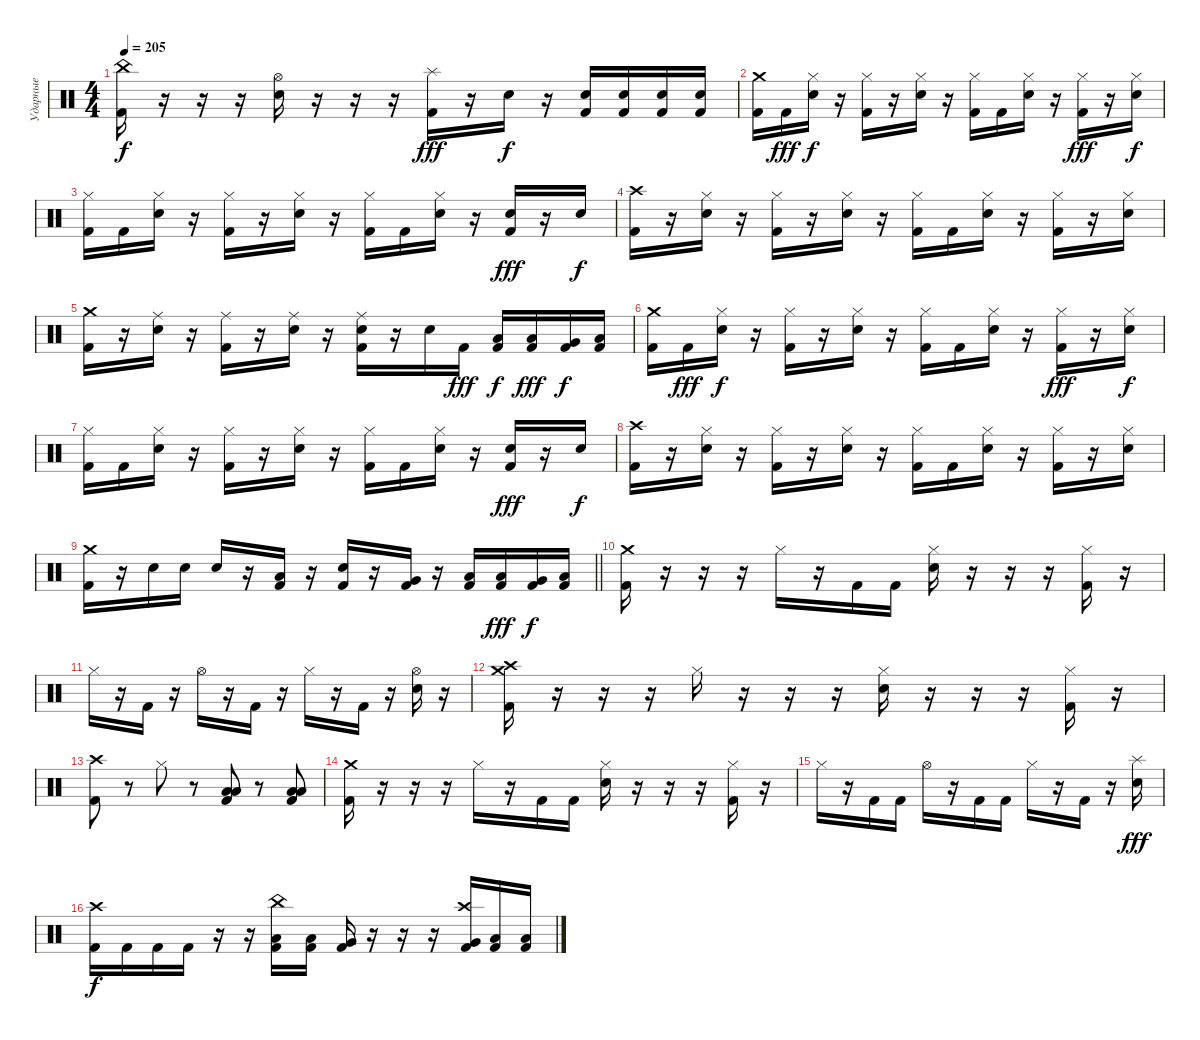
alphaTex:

\track ("Ударные" "Ударные") {instrument percussion}
\staff {score}
\articulation defaults
\ts (4 4)
\tempo 205
\clef neutral
\ks c
("China (hit)" "Kick (hit) 2").16{dy f} r.16 r.16 r.16 ("Hi-Hat (open)" "Snare (hit) 2").16 r.16 r.16 r.16 ("Splash (hit)" "Kick (hit) 2").16{dy fff} r.16 "Snare (hit) 2".16{dy f} r.16 ("Snare (hit) 2" "Kick (hit) 2").16 ("Snare (hit) 2" "Kick (hit) 2").16 ("Snare (hit) 2" "Kick (hit) 2").16 ("Snare (hit) 2" "Kick (hit) 2").16 |
("Crash medium (hit)" "Kick (hit) 2").16 "Kick (hit) 2".16{dy fff} ("Hi-Hat (closed)" "Snare (hit) 2").16{dy f} r.16 ("Hi-Hat (closed)" "Kick (hit) 2").16 r.16 ("Hi-Hat (closed)" "Snare (hit) 2").16 r.16 ("Hi-Hat (closed)" "Kick (hit) 2").16 "Kick (hit) 2".16 ("Hi-Hat (closed)" "Snare (hit) 2").16 r.16 ("Hi-Hat (closed)" "Kick (hit) 2").16{dy fff} r.16 ("Hi-Hat (closed)" "Snare (hit) 2").16{dy f} |
("Hi-Hat (closed)" "Kick (hit) 2").16 "Kick (hit) 2".16 ("Hi-Hat (closed)" "Snare (hit) 2").16 r.16 ("Hi-Hat (closed)" "Kick (hit) 2").16 r.16 ("Hi-Hat (closed)" "Snare (hit) 2").16 r.16 ("Hi-Hat (closed)" "Kick (hit) 2").16 "Kick (hit) 2".16 ("Hi-Hat (closed)" "Snare (hit) 2").16 r.16 ("Snare (hit) 2" "Kick (hit) 2").16{dy fff} r.16 "Snare (hit) 2".16{dy f} |
("Crash high (hit)" "Kick (hit) 2").16 r.16 ("Hi-Hat (closed)" "Snare (hit) 2").16 r.16 ("Hi-Hat (closed)" "Kick (hit) 2").16 r.16 ("Hi-Hat (closed)" "Snare (hit) 2").16 r.16 ("Hi-Hat (closed)" "Kick (hit) 2").16 "Kick (hit) 2".16 ("Hi-Hat (closed)" "Snare (hit) 2").16 r.16 ("Hi-Hat (closed)" "Kick (hit) 2").16 r.16 ("Hi-Hat (closed)" "Snare (hit) 2").16 |
("Crash medium (hit)" "Kick (hit) 2").16 r.16 ("Ride (middle)" "Snare (hit) 2").16 r.16 ("Ride (middle)" "Kick (hit) 2").16 r.16 ("Ride (middle)" "Snare (hit) 2").16 r.16 ("Ride (middle)" "Snare (hit) 2" "Kick (hit) 2").16 r.16 "Snare (hit) 2".16 "Kick (hit) 2".16{dy fff} ("Low Tom (hit)" "Kick (hit) 2").16{dy f} ("Low Tom (hit)" "Kick (hit) 2").16{dy fff} ("Very Low Tom (hit)" "Kick (hit) 2").16{dy f} ("Low Floor Tom (hit)" "Kick (hit) 2").16 |
("Crash medium (hit)" "Kick (hit) 2").16 "Kick (hit) 2".16{dy fff} ("Hi-Hat (closed)" "Snare (hit) 2").16{dy f} r.16 ("Hi-Hat (closed)" "Kick (hit) 2").16 r.16 ("Hi-Hat (closed)" "Snare (hit) 2").16 r.16 ("Hi-Hat (closed)" "Kick (hit) 2").16 "Kick (hit) 2".16 ("Hi-Hat (closed)" "Snare (hit) 2").16 r.16 ("Hi-Hat (closed)" "Kick (hit) 2").16{dy fff} r.16 ("Hi-Hat (closed)" "Snare (hit) 2").16{dy f} |
("Hi-Hat (closed)" "Kick (hit) 2").16 "Kick (hit) 2".16 ("Hi-Hat (closed)" "Snare (hit) 2").16 r.16 ("Hi-Hat (closed)" "Kick (hit) 2").16 r.16 ("Hi-Hat (closed)" "Snare (hit) 2").16 r.16 ("Hi-Hat (closed)" "Kick (hit) 2").16 "Kick (hit) 2".16 ("Hi-Hat (closed)" "Snare (hit) 2").16 r.16 ("Snare (hit) 2" "Kick (hit) 2").16{dy fff} r.16 "Snare (hit) 2".16{dy f} |
("Crash high (hit)" "Kick (hit) 2").16 r.16 ("Hi-Hat (closed)" "Snare (hit) 2").16 r.16 ("Hi-Hat (closed)" "Kick (hit) 2").16 r.16 ("Hi-Hat (closed)" "Snare (hit) 2").16 r.16 ("Hi-Hat (closed)" "Kick (hit) 2").16 "Kick (hit) 2".16 ("Hi-Hat (closed)" "Snare (hit) 2").16 r.16 ("Hi-Hat (closed)" "Kick (hit) 2").16 r.16 ("Hi-Hat (closed)" "Snare (hit) 2").16 |
\barLineRight lightlight
("Crash medium (hit)" "Kick (hit) 2").16 r.16 "Snare (hit) 2".16 "Snare (hit) 2".16 "Snare (hit) 2".16 r.16 ("Low Floor Tom (hit)" "Kick (hit) 2").16 r.16 ("Snare (hit) 2" "Kick (hit) 2").16 r.16 ("Very Low Tom (hit)" "Kick (hit) 2").16 r.16 ("Low Tom (hit)" "Kick (hit) 2").16 ("Low Tom (hit)" "Kick (hit) 2").16{dy fff} ("Very Low Tom (hit)" "Kick (hit) 2").16{dy f} ("Low Floor Tom (hit)" "Kick (hit) 2").16 |
("Crash medium (hit)" "Kick (hit) 2").16 r.16 r.16 r.16 "Hi-Hat (closed)".16 r.16 "Kick (hit) 2".16 "Kick (hit) 2".16 ("Hi-Hat (closed)" "Snare (hit) 2").16 r.16 r.16 r.16 ("Hi-Hat (closed)" "Kick (hit) 2").16 r.16 |
"Hi-Hat (closed)".16 r.16 "Kick (hit) 2".16 r.16 "Hi-Hat (open)".16 r.16 "Kick (hit) 2".16 r.16 "Hi-Hat (closed)".16 r.16 "Kick (hit) 2".16 r.16 ("Hi-Hat (open)" "Snare (hit) 2").16 r.16 |
("Crash medium (hit)" "Crash high (hit)" "Kick (hit) 2").16 r.16 r.16 r.16 "Hi-Hat (closed)".16 r.16 r.16 r.16 ("Hi-Hat (closed)" "Snare (hit) 2").16 r.16 r.16 r.16 ("Hi-Hat (closed)" "Kick (hit) 2").16 r.16 |
("Crash high (hit)" "Kick (hit) 2").8 r.8 "Hi-Hat (closed)".8 r.8 ("Low Tom (hit)" "Low Floor Tom (hit)" "Kick (hit) 2").8 r.8 ("Low Tom (hit)" "Low Floor Tom (hit)" "Kick (hit) 2").8 |
("Crash medium (hit)" "Kick (hit) 2").16 r.16 r.16 r.16 "Hi-Hat (closed)".16 r.16 "Kick (hit) 2".16 "Kick (hit) 2".16 ("Hi-Hat (closed)" "Snare (hit) 2").16 r.16 r.16 r.16 ("Hi-Hat (closed)" "Kick (hit) 2").16 r.16 |
"Hi-Hat (closed)".16 r.16 "Kick (hit) 2".16 "Kick (hit) 2".16 "Hi-Hat (open)".16 r.16 "Kick (hit) 2".16 "Kick (hit) 2".16 "Hi-Hat (closed)".16 r.16 "Kick (hit) 2".16 r.16 ("Splash (hit)" "Snare (hit) 2").16{dy fff} |
("Crash high (hit)" "Kick (hit) 2").16{dy f} "Kick (hit) 2".16 "Kick (hit) 2".16 "Kick (hit) 2".16 r.16 r.16 ("China (hit)" "Low Tom (hit)" "Kick (hit) 2").16 ("Low Floor Tom (hit)" "Kick (hit) 2").16 ("Very Low Tom (hit)" "Kick (hit) 2").16 r.16 r.16 r.16 ("Crash high (hit)" "Very Low Tom (hit)" "Kick (hit) 2").16 ("Low Floor Tom (hit)" "Kick (hit) 2").16 ("Low Tom (hit)" "Kick (hit) 2").16
